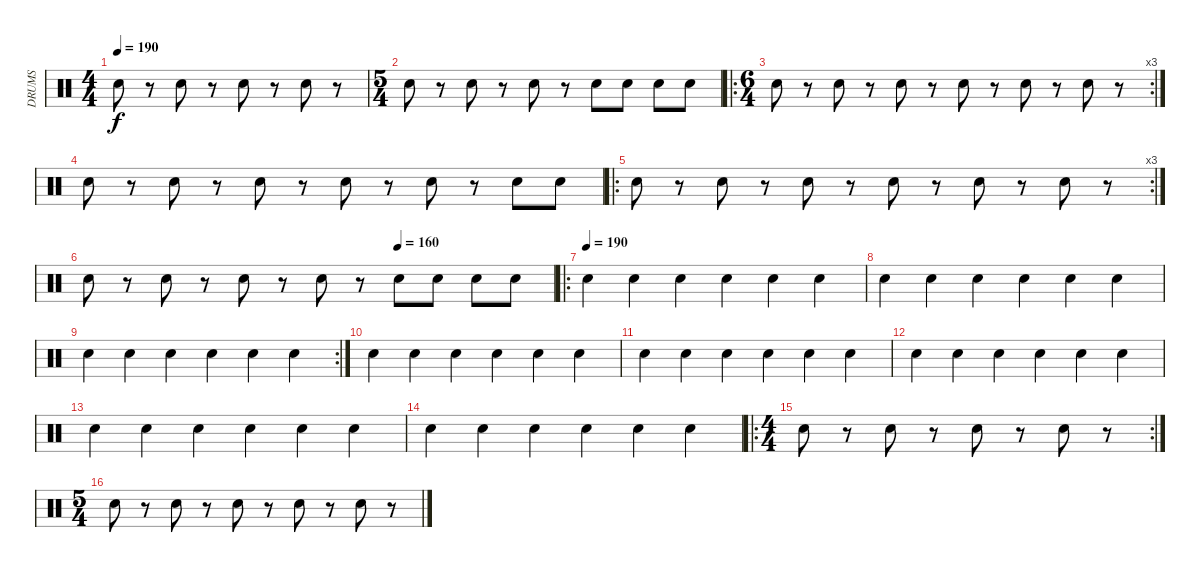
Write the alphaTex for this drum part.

\track ("DRUMS" "DRUMS") {instrument percussion}
\staff {score}
\articulation defaults
\ts (4 4)
\tempo 190
\clef neutral
\ks c "Electric Snare (hit)".8{dy f}
r.8 "Electric Snare (hit)".8 r.8 "Electric Snare (hit)".8 r.8 "Electric Snare (hit)".8 r.8 |
\ts (5 4)
"Electric Snare (hit)".8 r.8 "Electric Snare (hit)".8 r.8 "Electric Snare (hit)".8 r.8 "Electric Snare (hit)".8 "Electric Snare (hit)".8 "Electric Snare (hit)".8 "Electric Snare (hit)".8 |
\ro
\rc 3
\ts (6 4)
"Electric Snare (hit)".8 r.8 "Electric Snare (hit)".8 r.8 "Electric Snare (hit)".8 r.8 "Electric Snare (hit)".8 r.8 "Electric Snare (hit)".8 r.8 "Electric Snare (hit)".8 r.8 |
"Electric Snare (hit)".8 r.8 "Electric Snare (hit)".8 r.8 "Electric Snare (hit)".8 r.8 "Electric Snare (hit)".8 r.8 "Electric Snare (hit)".8 r.8 "Electric Snare (hit)".8 "Electric Snare (hit)".8 |
\ro
\rc 3 "Electric Snare (hit)".8
r.8 "Electric Snare (hit)".8 r.8 "Electric Snare (hit)".8 r.8 "Electric Snare (hit)".8 r.8 "Electric Snare (hit)".8 r.8 "Electric Snare (hit)".8 r.8 |
\tempo (160 0.6666666666666666)
"Electric Snare (hit)".8 r.8 "Electric Snare (hit)".8 r.8 "Electric Snare (hit)".8 r.8 "Electric Snare (hit)".8 r.8 "Electric Snare (hit)".8 "Electric Snare (hit)".8 "Electric Snare (hit)".8 "Electric Snare (hit)".8 |
\ro
\tempo (190)
"Electric Snare (hit)".4 "Electric Snare (hit)".4 "Electric Snare (hit)".4 "Electric Snare (hit)".4 "Electric Snare (hit)".4 "Electric Snare (hit)".4 |
"Electric Snare (hit)".4 "Electric Snare (hit)".4 "Electric Snare (hit)".4 "Electric Snare (hit)".4 "Electric Snare (hit)".4 "Electric Snare (hit)".4 |
\rc 2 "Electric Snare (hit)".4 "Electric Snare (hit)".4 "Electric Snare (hit)".4 "Electric Snare (hit)".4 "Electric Snare (hit)".4 "Electric Snare (hit)".4
|
"Electric Snare (hit)".4 "Electric Snare (hit)".4 "Electric Snare (hit)".4 "Electric Snare (hit)".4 "Electric Snare (hit)".4 "Electric Snare (hit)".4 |
"Electric Snare (hit)".4 "Electric Snare (hit)".4 "Electric Snare (hit)".4 "Electric Snare (hit)".4 "Electric Snare (hit)".4 "Electric Snare (hit)".4 |
"Electric Snare (hit)".4 "Electric Snare (hit)".4 "Electric Snare (hit)".4 "Electric Snare (hit)".4 "Electric Snare (hit)".4 "Electric Snare (hit)".4 |
"Electric Snare (hit)".4 "Electric Snare (hit)".4 "Electric Snare (hit)".4 "Electric Snare (hit)".4 "Electric Snare (hit)".4 "Electric Snare (hit)".4 |
"Electric Snare (hit)".4 "Electric Snare (hit)".4 "Electric Snare (hit)".4 "Electric Snare (hit)".4 "Electric Snare (hit)".4 "Electric Snare (hit)".4 |
\ro
\rc 2
\ts (4 4)
"Electric Snare (hit)".8 r.8 "Electric Snare (hit)".8 r.8 "Electric Snare (hit)".8 r.8 "Electric Snare (hit)".8 r.8 |
\ts (5 4)
"Electric Snare (hit)".8 r.8 "Electric Snare (hit)".8 r.8 "Electric Snare (hit)".8 r.8 "Electric Snare (hit)".8 r.8 "Electric Snare (hit)".8 r.8
